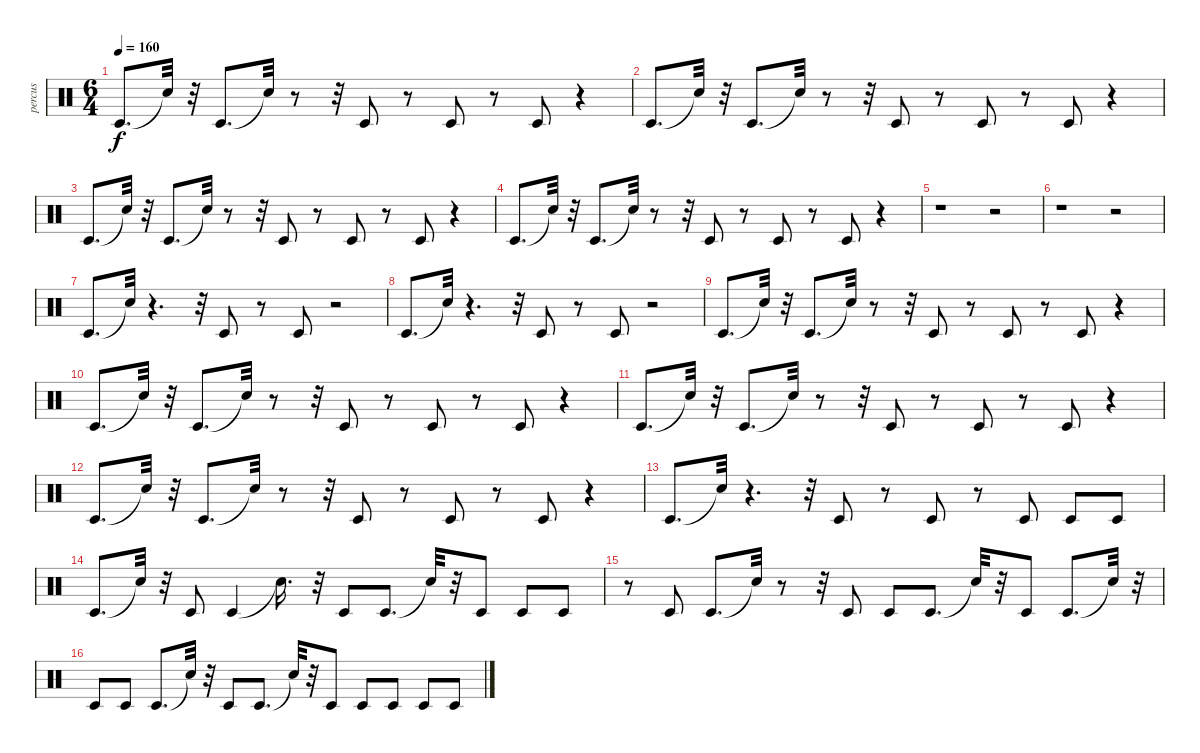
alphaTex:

\track ("percus" "percus") {instrument percussion}
\staff {score}
\articulation defaults
\ts (6 4)
\tempo 160
\clef neutral
\ks c "Timbale low (hit)".8{d dy f} "Snare (hit)"{t}.32
r.32 "Timbale low (hit)".8{d} "Snare (hit)"{t}.32 r.8 r.32 "Timbale low (hit)".8 r.8 "Timbale low (hit)".8 r.8 "Timbale low (hit)".8 r.4 |
"Timbale low (hit)".8{d} "Snare (hit)"{t}.32 r.32 "Timbale low (hit)".8{d} "Snare (hit)"{t}.32 r.8 r.32 "Timbale low (hit)".8 r.8 "Timbale low (hit)".8 r.8 "Timbale low (hit)".8 r.4 |
"Timbale low (hit)".8{d} "Snare (hit)"{t}.32 r.32 "Timbale low (hit)".8{d} "Snare (hit)"{t}.32 r.8 r.32 "Timbale low (hit)".8 r.8 "Timbale low (hit)".8 r.8 "Timbale low (hit)".8 r.4 |
"Timbale low (hit)".8{d} "Snare (hit)"{t}.32 r.32 "Timbale low (hit)".8{d} "Snare (hit)"{t}.32 r.8 r.32 "Timbale low (hit)".8 r.8 "Timbale low (hit)".8 r.8 "Timbale low (hit)".8 r.4 |
r.1 r.2 |
r.1 r.2 |
"Timbale low (hit)".8{d} "Snare (hit)"{t}.32 r.4{d} r.32 "Timbale low (hit)".8 r.8 "Timbale low (hit)".8 r.2 |
"Timbale low (hit)".8{d} "Snare (hit)"{t}.32 r.4{d} r.32 "Timbale low (hit)".8 r.8 "Timbale low (hit)".8 r.2 |
"Timbale low (hit)".8{d} "Snare (hit)"{t}.32 r.32 "Timbale low (hit)".8{d} "Snare (hit)"{t}.32 r.8 r.32 "Timbale low (hit)".8 r.8 "Timbale low (hit)".8 r.8 "Timbale low (hit)".8 r.4 |
"Timbale low (hit)".8{d} "Snare (hit)"{t}.32 r.32 "Timbale low (hit)".8{d} "Snare (hit)"{t}.32 r.8 r.32 "Timbale low (hit)".8 r.8 "Timbale low (hit)".8 r.8 "Timbale low (hit)".8 r.4 |
"Timbale low (hit)".8{d} "Snare (hit)"{t}.32 r.32 "Timbale low (hit)".8{d} "Snare (hit)"{t}.32 r.8 r.32 "Timbale low (hit)".8 r.8 "Timbale low (hit)".8 r.8 "Timbale low (hit)".8 r.4 |
"Timbale low (hit)".8{d} "Snare (hit)"{t}.32 r.32 "Timbale low (hit)".8{d} "Snare (hit)"{t}.32 r.8 r.32 "Timbale low (hit)".8 r.8 "Timbale low (hit)".8 r.8 "Timbale low (hit)".8 r.4 |
"Timbale low (hit)".8{d} "Snare (hit)"{t}.32 r.4{d} r.32 "Timbale low (hit)".8 r.8 "Timbale low (hit)".8 r.8 "Timbale low (hit)".8 "Timbale low (hit)".8 "Timbale low (hit)".8 |
"Timbale low (hit)".8{d} "Snare (hit)"{t}.32 r.32 "Timbale low (hit)".8 "Timbale low (hit)".4 "Snare (hit)"{t}.16{d} r.32 "Timbale low (hit)".8 "Timbale low (hit)".8{d} "Snare (hit)"{t}.32 r.32 "Timbale low (hit)".8 "Timbale low (hit)".8 "Timbale low (hit)".8 |
r.8 "Timbale low (hit)".8 "Timbale low (hit)".8{d} "Snare (hit)"{t}.32 r.8 r.32 "Timbale low (hit)".8 "Timbale low (hit)".8 "Timbale low (hit)".8{d} "Snare (hit)"{t}.32 r.32 "Timbale low (hit)".8 "Timbale low (hit)".8{d} "Snare (hit)"{t}.32 r.32 |
"Timbale low (hit)".8 "Timbale low (hit)".8 "Timbale low (hit)".8{d} "Snare (hit)"{t}.32 r.32 "Timbale low (hit)".8 "Timbale low (hit)".8{d} "Snare (hit)"{t}.32 r.32 "Timbale low (hit)".8 "Timbale low (hit)".8 "Timbale low (hit)".8 "Timbale low (hit)".8 "Timbale low (hit)".8
